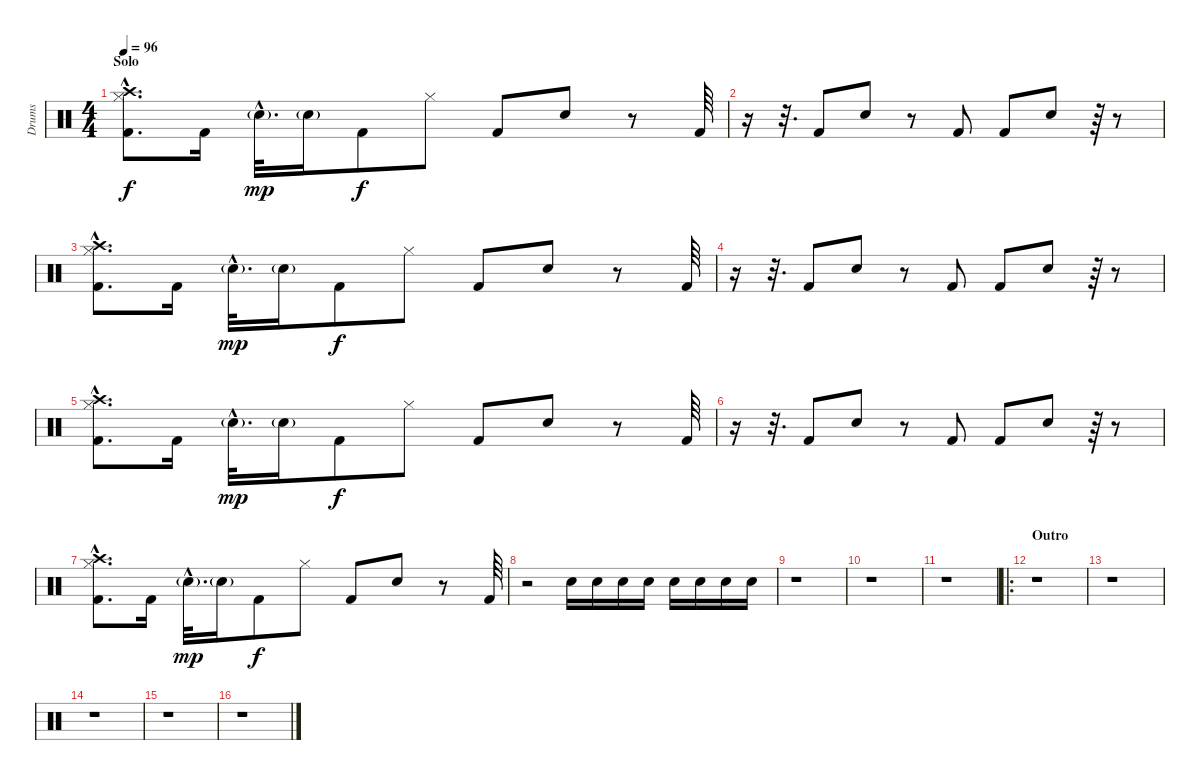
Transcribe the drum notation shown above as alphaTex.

\track ("Drums" "Drums") {instrument percussion}
\staff {score}
\articulation defaults
\ts (4 4)
\section ("" "Solo")
\tempo 96
\clef neutral
\ks c
("Kick (hit) 2"{hac} "Crash high (hit)"{hac} "Hi-Hat (closed)"{hac}).8{d dy f} "Kick (hit) 2".16 "Snare (hit) 2"{g hac}.32{d dy mp} "Snare (hit) 2"{g}.16 "Kick (hit) 2".8{dy f} "Hi-Hat (closed)".8 "Kick (hit) 2".8 "Snare (hit) 2".8 r.8 "Kick (hit) 2".64 |
r.16 r.32{d} "Kick (hit) 2".8 "Snare (hit) 2".8 r.8 "Kick (hit) 2".8 "Kick (hit) 2".8 "Snare (hit) 2".8 r.64 r.8 |
("Kick (hit) 2"{hac} "Crash high (hit)"{hac} "Hi-Hat (closed)"{hac}).8{d} "Kick (hit) 2".16 "Snare (hit) 2"{g hac}.32{d dy mp} "Snare (hit) 2"{g}.16 "Kick (hit) 2".8{dy f} "Hi-Hat (closed)".8 "Kick (hit) 2".8 "Snare (hit) 2".8 r.8 "Kick (hit) 2".64 |
r.16 r.32{d} "Kick (hit) 2".8 "Snare (hit) 2".8 r.8 "Kick (hit) 2".8 "Kick (hit) 2".8 "Snare (hit) 2".8 r.64 r.8 |
("Kick (hit) 2"{hac} "Crash high (hit)"{hac} "Hi-Hat (closed)"{hac}).8{d} "Kick (hit) 2".16 "Snare (hit) 2"{g hac}.32{d dy mp} "Snare (hit) 2"{g}.16 "Kick (hit) 2".8{dy f} "Hi-Hat (closed)".8 "Kick (hit) 2".8 "Snare (hit) 2".8 r.8 "Kick (hit) 2".64 |
r.16 r.32{d} "Kick (hit) 2".8 "Snare (hit) 2".8 r.8 "Kick (hit) 2".8 "Kick (hit) 2".8 "Snare (hit) 2".8 r.64 r.8 |
("Kick (hit) 2"{hac} "Crash high (hit)"{hac} "Hi-Hat (closed)"{hac}).8{d} "Kick (hit) 2".16 "Snare (hit) 2"{g hac}.32{d dy mp} "Snare (hit) 2"{g}.16 "Kick (hit) 2".8{dy f} "Hi-Hat (closed)".8 "Kick (hit) 2".8 "Snare (hit) 2".8 r.8 "Kick (hit) 2".64 |
r.2 "Snare (hit) 2".16 "Snare (hit) 2".16 "Snare (hit) 2".16 "Snare (hit) 2".16 "Snare (hit) 2".16 "Snare (hit) 2".16 "Snare (hit) 2".16 "Snare (hit) 2".16 |
r.1 |
r.1 |
r.1 |
\ro
\section ("" "Outro")
r.1 |
r.1 |
r.1 |
r.1 |
r.1
